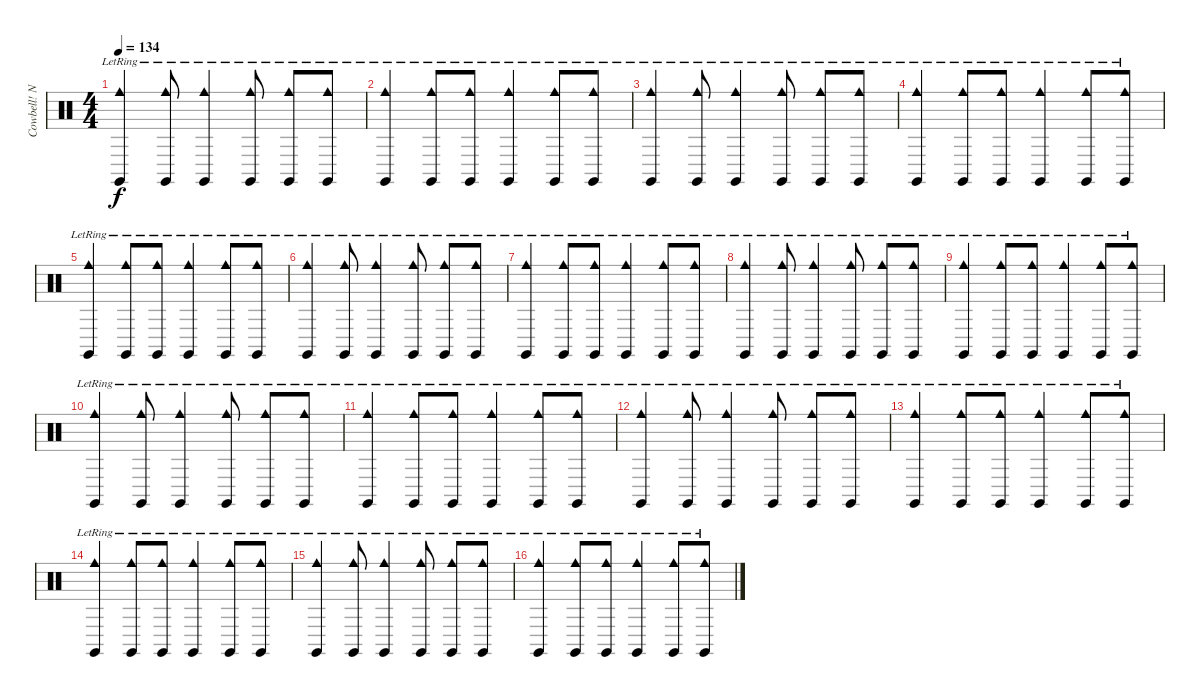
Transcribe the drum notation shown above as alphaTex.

\track ("Cowbell! Need More Cowbell!" "Cowbell! N") {instrument percussion}
\staff {score}
\articulation defaults
\ts (4 4)
\tempo 134
\clef neutral
\ks c
("Cowbell medium (hit)"{lr} "Claves (hit)").4{dy f} ("Cowbell medium (hit)"{lr} "Claves (hit)").8 ("Cowbell medium (hit)"{lr} "Claves (hit)").4 ("Cowbell medium (hit)"{lr} "Claves (hit)").8 ("Cowbell medium (hit)"{lr} "Claves (hit)").8 ("Cowbell medium (hit)"{lr} "Claves (hit)").8 |
("Cowbell medium (hit)"{lr} "Claves (hit)").4 ("Cowbell medium (hit)"{lr} "Claves (hit)").8 ("Cowbell medium (hit)"{lr} "Claves (hit)").8 ("Cowbell medium (hit)"{lr} "Claves (hit)").4 ("Cowbell medium (hit)"{lr} "Claves (hit)").8 ("Cowbell medium (hit)"{lr} "Claves (hit)").8 |
("Cowbell medium (hit)"{lr} "Claves (hit)").4 ("Cowbell medium (hit)"{lr} "Claves (hit)").8 ("Cowbell medium (hit)"{lr} "Claves (hit)").4 ("Cowbell medium (hit)"{lr} "Claves (hit)").8 ("Cowbell medium (hit)"{lr} "Claves (hit)").8 ("Cowbell medium (hit)"{lr} "Claves (hit)").8 |
("Cowbell medium (hit)"{lr} "Claves (hit)").4 ("Cowbell medium (hit)"{lr} "Claves (hit)").8 ("Cowbell medium (hit)"{lr} "Claves (hit)").8 ("Cowbell medium (hit)"{lr} "Claves (hit)").4 ("Cowbell medium (hit)"{lr} "Claves (hit)").8 ("Cowbell medium (hit)"{lr} "Claves (hit)").8 |
("Cowbell medium (hit)"{lr} "Claves (hit)").4 ("Cowbell medium (hit)"{lr} "Claves (hit)").8 ("Cowbell medium (hit)"{lr} "Claves (hit)").8 ("Cowbell medium (hit)"{lr} "Claves (hit)").4 ("Cowbell medium (hit)"{lr} "Claves (hit)").8 ("Cowbell medium (hit)"{lr} "Claves (hit)").8 |
("Cowbell medium (hit)"{lr} "Claves (hit)").4 ("Cowbell medium (hit)"{lr} "Claves (hit)").8 ("Cowbell medium (hit)"{lr} "Claves (hit)").4 ("Cowbell medium (hit)"{lr} "Claves (hit)").8 ("Cowbell medium (hit)"{lr} "Claves (hit)").8 ("Cowbell medium (hit)"{lr} "Claves (hit)").8 |
("Cowbell medium (hit)"{lr} "Claves (hit)").4 ("Cowbell medium (hit)"{lr} "Claves (hit)").8 ("Cowbell medium (hit)"{lr} "Claves (hit)").8 ("Cowbell medium (hit)"{lr} "Claves (hit)").4 ("Cowbell medium (hit)"{lr} "Claves (hit)").8 ("Cowbell medium (hit)"{lr} "Claves (hit)").8 |
("Cowbell medium (hit)"{lr} "Claves (hit)").4 ("Cowbell medium (hit)"{lr} "Claves (hit)").8 ("Cowbell medium (hit)"{lr} "Claves (hit)").4 ("Cowbell medium (hit)"{lr} "Claves (hit)").8 ("Cowbell medium (hit)"{lr} "Claves (hit)").8 ("Cowbell medium (hit)"{lr} "Claves (hit)").8 |
("Cowbell medium (hit)"{lr} "Claves (hit)").4 ("Cowbell medium (hit)"{lr} "Claves (hit)").8 ("Cowbell medium (hit)"{lr} "Claves (hit)").8 ("Cowbell medium (hit)"{lr} "Claves (hit)").4 ("Cowbell medium (hit)"{lr} "Claves (hit)").8 ("Cowbell medium (hit)"{lr} "Claves (hit)").8 |
("Cowbell medium (hit)"{lr} "Claves (hit)").4 ("Cowbell medium (hit)"{lr} "Claves (hit)").8 ("Cowbell medium (hit)"{lr} "Claves (hit)").4 ("Cowbell medium (hit)"{lr} "Claves (hit)").8 ("Cowbell medium (hit)"{lr} "Claves (hit)").8 ("Cowbell medium (hit)"{lr} "Claves (hit)").8 |
("Cowbell medium (hit)"{lr} "Claves (hit)").4 ("Cowbell medium (hit)"{lr} "Claves (hit)").8 ("Cowbell medium (hit)"{lr} "Claves (hit)").8 ("Cowbell medium (hit)"{lr} "Claves (hit)").4 ("Cowbell medium (hit)"{lr} "Claves (hit)").8 ("Cowbell medium (hit)"{lr} "Claves (hit)").8 |
("Cowbell medium (hit)"{lr} "Claves (hit)").4 ("Cowbell medium (hit)"{lr} "Claves (hit)").8 ("Cowbell medium (hit)"{lr} "Claves (hit)").4 ("Cowbell medium (hit)"{lr} "Claves (hit)").8 ("Cowbell medium (hit)"{lr} "Claves (hit)").8 ("Cowbell medium (hit)"{lr} "Claves (hit)").8 |
("Cowbell medium (hit)"{lr} "Claves (hit)").4 ("Cowbell medium (hit)"{lr} "Claves (hit)").8 ("Cowbell medium (hit)"{lr} "Claves (hit)").8 ("Cowbell medium (hit)"{lr} "Claves (hit)").4 ("Cowbell medium (hit)"{lr} "Claves (hit)").8 ("Cowbell medium (hit)"{lr} "Claves (hit)").8 |
("Cowbell medium (hit)"{lr} "Claves (hit)").4 ("Cowbell medium (hit)"{lr} "Claves (hit)").8 ("Cowbell medium (hit)"{lr} "Claves (hit)").8 ("Cowbell medium (hit)"{lr} "Claves (hit)").4 ("Cowbell medium (hit)"{lr} "Claves (hit)").8 ("Cowbell medium (hit)"{lr} "Claves (hit)").8 |
("Cowbell medium (hit)"{lr} "Claves (hit)").4 ("Cowbell medium (hit)"{lr} "Claves (hit)").8 ("Cowbell medium (hit)"{lr} "Claves (hit)").4 ("Cowbell medium (hit)"{lr} "Claves (hit)").8 ("Cowbell medium (hit)"{lr} "Claves (hit)").8 ("Cowbell medium (hit)"{lr} "Claves (hit)").8 |
("Cowbell medium (hit)"{lr} "Claves (hit)").4 ("Cowbell medium (hit)"{lr} "Claves (hit)").8 ("Cowbell medium (hit)"{lr} "Claves (hit)").8 ("Cowbell medium (hit)"{lr} "Claves (hit)").4 ("Cowbell medium (hit)"{lr} "Claves (hit)").8 ("Cowbell medium (hit)"{lr} "Claves (hit)").8
